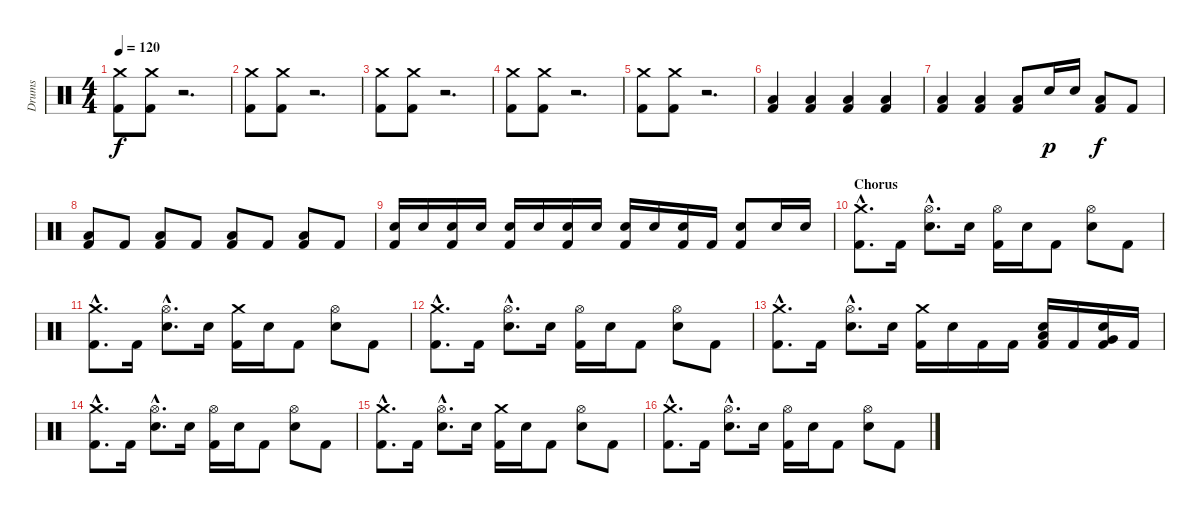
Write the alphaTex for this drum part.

\track ("Drums" "Drums") {instrument percussion}
\staff {score}
\articulation defaults
\ts (4 4)
\tempo 120
\clef neutral
\ks c
("Crash medium (hit)" "Kick (hit) 2").8{dy f} ("Crash medium (hit)" "Kick (hit) 2").8 r.2{d} |
("Crash medium (hit)" "Kick (hit) 2").8 ("Crash medium (hit)" "Kick (hit) 2").8 r.2{d} |
("Crash medium (hit)" "Kick (hit) 2").8 ("Crash medium (hit)" "Kick (hit) 2").8 r.2{d} |
("Crash medium (hit)" "Kick (hit) 2").8 ("Crash medium (hit)" "Kick (hit) 2").8 r.2{d} |
("Crash medium (hit)" "Kick (hit) 2").8 ("Crash medium (hit)" "Kick (hit) 2").8 r.2{d} |
("Kick (hit) 2" "Low Floor Tom (hit)").4 ("Kick (hit) 2" "Low Floor Tom (hit)").4 ("Kick (hit) 2" "Low Floor Tom (hit)").4 ("Kick (hit) 2" "Low Floor Tom (hit)").4 |
("Kick (hit) 2" "Low Floor Tom (hit)").4 ("Kick (hit) 2" "Low Floor Tom (hit)").4 ("Kick (hit) 2" "Low Floor Tom (hit)").8 "Electric Snare (hit)".16{dy p} "Electric Snare (hit)".16 ("Kick (hit) 2" "Low Floor Tom (hit)").8{dy f} "Kick (hit) 2".8 |
("Kick (hit) 2" "Low Floor Tom (hit)").8 "Kick (hit) 2".8 ("Kick (hit) 2" "Low Floor Tom (hit)").8 "Kick (hit) 2".8 ("Kick (hit) 2" "Low Floor Tom (hit)").8 "Kick (hit) 2".8 ("Kick (hit) 2" "Low Floor Tom (hit)").8 "Kick (hit) 2".8 |
("Electric Snare (hit)" "Kick (hit) 2").16 "Electric Snare (hit)".16 ("Electric Snare (hit)" "Kick (hit) 2").16 "Electric Snare (hit)".16 ("Electric Snare (hit)" "Kick (hit) 2").16 "Electric Snare (hit)".16 ("Electric Snare (hit)" "Kick (hit) 2").16 "Electric Snare (hit)".16 ("Electric Snare (hit)" "Kick (hit) 2").16 "Electric Snare (hit)".16 ("Electric Snare (hit)" "Kick (hit) 2").16 "Kick (hit) 2".16 ("Electric Snare (hit)" "Kick (hit) 2").8 "Electric Snare (hit)".16 "Electric Snare (hit)".16 |
\section ("" "Chorus")
("Crash medium (hit)"{hac} "Kick (hit) 2"{hac}).8{d} "Kick (hit) 2".16 ("Hi-Hat (open)"{hac} "Electric Snare (hit)"{hac}).8{d} "Electric Snare (hit)".16 ("Hi-Hat (open)" "Kick (hit) 2").16 "Electric Snare (hit)".16 "Kick (hit) 2".8 ("Hi-Hat (open)" "Electric Snare (hit)").8 "Kick (hit) 2".8 |
("Crash medium (hit)"{hac} "Kick (hit) 2"{hac}).8{d} "Kick (hit) 2".16 ("Hi-Hat (open)"{hac} "Electric Snare (hit)"{hac}).8{d} "Electric Snare (hit)".16 ("Crash medium (hit)" "Kick (hit) 2").16 "Electric Snare (hit)".16 "Kick (hit) 2".8 ("Hi-Hat (open)" "Electric Snare (hit)").8 "Kick (hit) 2".8 |
("Crash medium (hit)"{hac} "Kick (hit) 2"{hac}).8{d} "Kick (hit) 2".16 ("Hi-Hat (open)"{hac} "Electric Snare (hit)"{hac}).8{d} "Electric Snare (hit)".16 ("Hi-Hat (open)" "Kick (hit) 2").16 "Electric Snare (hit)".16 "Kick (hit) 2".8 ("Hi-Hat (open)" "Electric Snare (hit)").8 "Kick (hit) 2".8 |
("Crash medium (hit)"{hac} "Kick (hit) 2"{hac}).8{d} "Kick (hit) 2".16 ("Hi-Hat (open)"{hac} "Electric Snare (hit)"{hac}).8{d} "Electric Snare (hit)".16 ("Crash medium (hit)" "Kick (hit) 2").16 "Electric Snare (hit)".16 "Kick (hit) 2".16 "Kick (hit) 2".16 ("Electric Snare (hit)" "Low Tom (hit)" "Kick (hit) 2").16 "Kick (hit) 2".16 ("Electric Snare (hit)" "Very Low Tom (hit)" "Kick (hit) 2").16 "Kick (hit) 2".16 |
("Crash medium (hit)"{hac} "Kick (hit) 2"{hac}).8{d} "Kick (hit) 2".16 ("Hi-Hat (open)"{hac} "Electric Snare (hit)"{hac}).8{d} "Electric Snare (hit)".16 ("Hi-Hat (open)" "Kick (hit) 2").16 "Electric Snare (hit)".16 "Kick (hit) 2".8 ("Hi-Hat (open)" "Electric Snare (hit)").8 "Kick (hit) 2".8 |
("Crash medium (hit)"{hac} "Kick (hit) 2"{hac}).8{d} "Kick (hit) 2".16 ("Hi-Hat (open)"{hac} "Electric Snare (hit)"{hac}).8{d} "Electric Snare (hit)".16 ("Crash medium (hit)" "Kick (hit) 2").16 "Electric Snare (hit)".16 "Kick (hit) 2".8 ("Hi-Hat (open)" "Electric Snare (hit)").8 "Kick (hit) 2".8 |
("Crash medium (hit)"{hac} "Kick (hit) 2"{hac}).8{d} "Kick (hit) 2".16 ("Hi-Hat (open)"{hac} "Electric Snare (hit)"{hac}).8{d} "Electric Snare (hit)".16 ("Hi-Hat (open)" "Kick (hit) 2").16 "Electric Snare (hit)".16 "Kick (hit) 2".8 ("Hi-Hat (open)" "Electric Snare (hit)").8 "Kick (hit) 2".8
